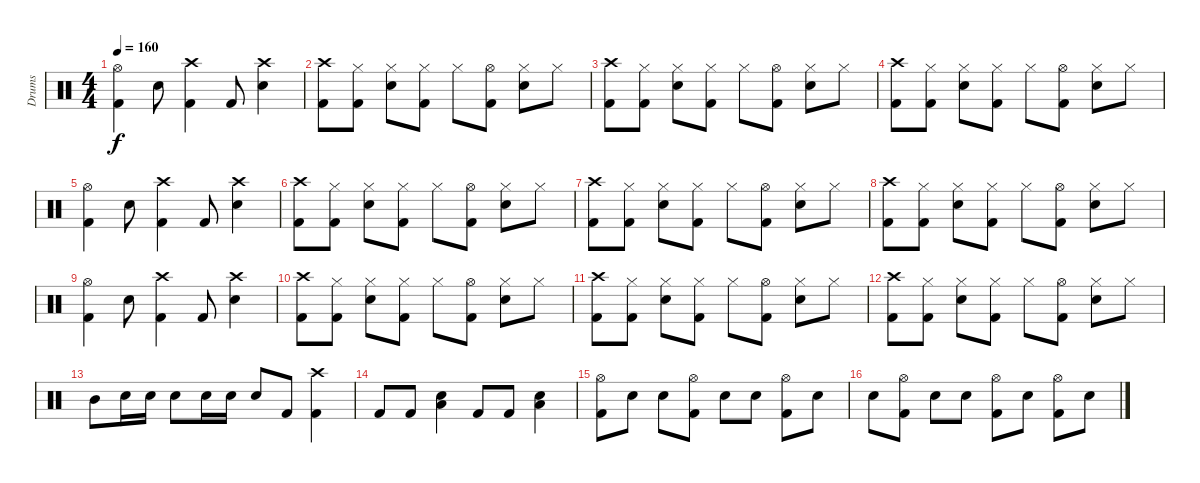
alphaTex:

\track ("Drums" "Drums") {instrument percussion}
\staff {score}
\articulation defaults
\ts (4 4)
\tempo 160
\clef neutral
\ks c
("Hi-Hat (open)" "Kick (hit) 2").4{dy f} "Snare (hit) 2".8 ("Crash high (hit)" "Kick (hit) 2").4 "Kick (hit) 2".8 ("Crash high (hit)" "Snare (hit) 2").4 |
("Crash high (hit)" "Kick (hit) 2").8 ("Hi-Hat (closed)" "Kick (hit) 2").8 ("Hi-Hat (closed)" "Snare (hit) 2").8 ("Hi-Hat (closed)" "Kick (hit) 2").8 "Hi-Hat (closed)".8 ("Hi-Hat (open)" "Kick (hit) 2").8 ("Hi-Hat (closed)" "Snare (hit) 2").8 "Hi-Hat (closed)".8 |
("Crash high (hit)" "Kick (hit) 2").8 ("Hi-Hat (closed)" "Kick (hit) 2").8 ("Hi-Hat (closed)" "Snare (hit) 2").8 ("Hi-Hat (closed)" "Kick (hit) 2").8 "Hi-Hat (closed)".8 ("Hi-Hat (open)" "Kick (hit) 2").8 ("Hi-Hat (closed)" "Snare (hit) 2").8 "Hi-Hat (closed)".8 |
("Crash high (hit)" "Kick (hit) 2").8 ("Hi-Hat (closed)" "Kick (hit) 2").8 ("Hi-Hat (closed)" "Snare (hit) 2").8 ("Hi-Hat (closed)" "Kick (hit) 2").8 "Hi-Hat (closed)".8 ("Hi-Hat (open)" "Kick (hit) 2").8 ("Hi-Hat (closed)" "Snare (hit) 2").8 "Hi-Hat (closed)".8 |
("Hi-Hat (open)" "Kick (hit) 2").4 "Snare (hit) 2".8 ("Crash high (hit)" "Kick (hit) 2").4 "Kick (hit) 2".8 ("Crash high (hit)" "Snare (hit) 2").4 |
("Crash high (hit)" "Kick (hit) 2").8 ("Hi-Hat (closed)" "Kick (hit) 2").8 ("Hi-Hat (closed)" "Snare (hit) 2").8 ("Hi-Hat (closed)" "Kick (hit) 2").8 "Hi-Hat (closed)".8 ("Hi-Hat (open)" "Kick (hit) 2").8 ("Hi-Hat (closed)" "Snare (hit) 2").8 "Hi-Hat (closed)".8 |
("Crash high (hit)" "Kick (hit) 2").8 ("Hi-Hat (closed)" "Kick (hit) 2").8 ("Hi-Hat (closed)" "Snare (hit) 2").8 ("Hi-Hat (closed)" "Kick (hit) 2").8 "Hi-Hat (closed)".8 ("Hi-Hat (open)" "Kick (hit) 2").8 ("Hi-Hat (closed)" "Snare (hit) 2").8 "Hi-Hat (closed)".8 |
("Crash high (hit)" "Kick (hit) 2").8 ("Hi-Hat (closed)" "Kick (hit) 2").8 ("Hi-Hat (closed)" "Snare (hit) 2").8 ("Hi-Hat (closed)" "Kick (hit) 2").8 "Hi-Hat (closed)".8 ("Hi-Hat (open)" "Kick (hit) 2").8 ("Hi-Hat (closed)" "Snare (hit) 2").8 "Hi-Hat (closed)".8 |
("Hi-Hat (open)" "Kick (hit) 2").4 "Snare (hit) 2".8 ("Crash high (hit)" "Kick (hit) 2").4 "Kick (hit) 2".8 ("Crash high (hit)" "Snare (hit) 2").4 |
("Crash high (hit)" "Kick (hit) 2").8 ("Hi-Hat (closed)" "Kick (hit) 2").8 ("Hi-Hat (closed)" "Snare (hit) 2").8 ("Hi-Hat (closed)" "Kick (hit) 2").8 "Hi-Hat (closed)".8 ("Hi-Hat (open)" "Kick (hit) 2").8 ("Hi-Hat (closed)" "Snare (hit) 2").8 "Hi-Hat (closed)".8 |
("Crash high (hit)" "Kick (hit) 2").8 ("Hi-Hat (closed)" "Kick (hit) 2").8 ("Hi-Hat (closed)" "Snare (hit) 2").8 ("Hi-Hat (closed)" "Kick (hit) 2").8 "Hi-Hat (closed)".8 ("Hi-Hat (open)" "Kick (hit) 2").8 ("Hi-Hat (closed)" "Snare (hit) 2").8 "Hi-Hat (closed)".8 |
("Crash high (hit)" "Kick (hit) 2").8 ("Hi-Hat (closed)" "Kick (hit) 2").8 ("Hi-Hat (closed)" "Snare (hit) 2").8 ("Hi-Hat (closed)" "Kick (hit) 2").8 "Hi-Hat (closed)".8 ("Hi-Hat (open)" "Kick (hit) 2").8 ("Hi-Hat (closed)" "Snare (hit) 2").8 "Hi-Hat (closed)".8 |
"Mid Tom (hit)".8 "Snare (hit) 2".16 "Snare (hit) 2".16 "Snare (hit) 2".8 "Snare (hit) 2".16 "Snare (hit) 2".16 "Snare (hit) 2".8 "Kick (hit) 2".8 ("Crash high (hit)" "Kick (hit) 2").4 |
"Kick (hit) 2".8 "Kick (hit) 2".8 ("Snare (hit) 2" "Low Tom (hit)").4 "Kick (hit) 2".8 "Kick (hit) 2".8 ("Snare (hit) 2" "Low Tom (hit)").4 |
("Hi-Hat (open)" "Kick (hit) 2").8 "Snare (hit) 2".8 "Snare (hit) 2".8 ("Hi-Hat (open)" "Kick (hit) 2").8 "Snare (hit) 2".8 "Snare (hit) 2".8 ("Hi-Hat (open)" "Kick (hit) 2").8 "Snare (hit) 2".8 |
"Snare (hit) 2".8 ("Hi-Hat (open)" "Kick (hit) 2").8 "Snare (hit) 2".8 "Snare (hit) 2".8 ("Hi-Hat (open)" "Kick (hit) 2").8 "Snare (hit) 2".8 ("Hi-Hat (open)" "Kick (hit) 2").8 "Snare (hit) 2".8
